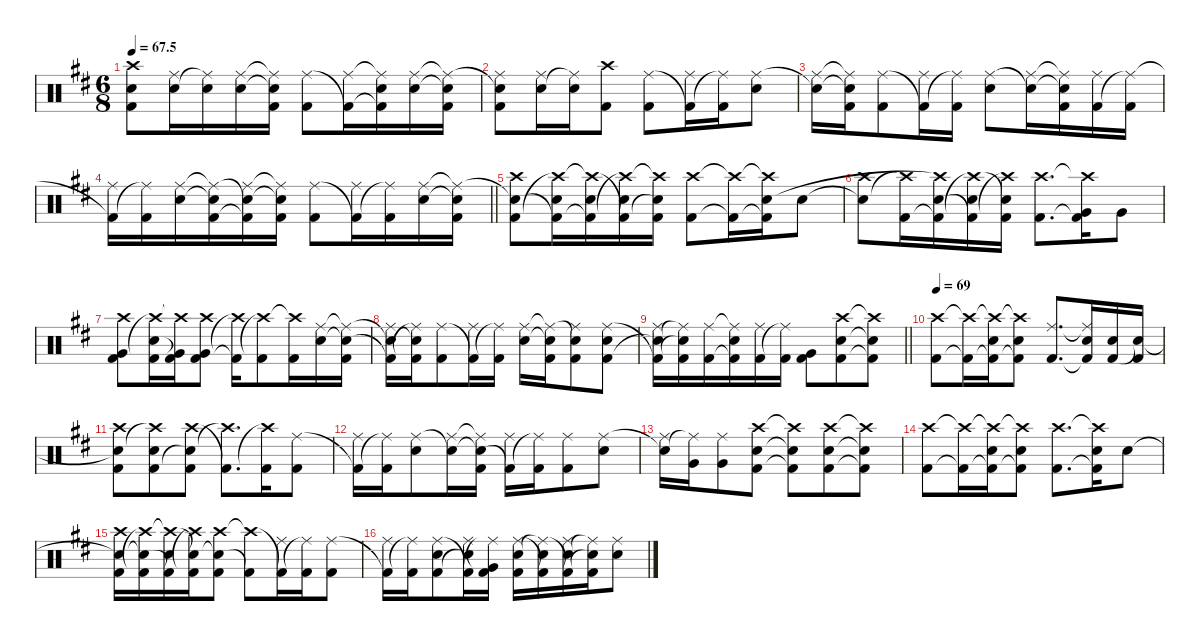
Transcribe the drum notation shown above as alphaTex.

\defaultSystemsLayout 4
\hideDynamics
\bracketExtendMode nobrackets
\singleTrackTrackNamePolicy hidden
\multiTrackTrackNamePolicy hidden
\firstSystemTrackNameMode fullname
\firstSystemTrackNameOrientation horizontal
\otherSystemsTrackNameOrientation horizontal
\track ("Drumkit" "drm.") {defaultSystemsLayout 4 instrument percussion}
\staff {score}
\articulation defaults
\ts (6 8)
\tempo
67.5
\accidentals auto
\clef neutral
\ottava regular
\simile none
\ks bminor
("Kick (hit) 2"{acc forcenatural} "Snare (hit) 2"{t acc forcenatural} "Crash high (hit)"{acc #}).8{dy ff beam Down} ("Snare (hit) 2"{acc forcenatural} "Ride (middle)"{acc #}).16{beam Down} ("Ride (middle)"{t acc #} "Snare (hit) 2"{acc forcenatural}).16{beam Down} ("Snare (hit) 2"{acc forcenatural} "Ride (middle)"{acc #}).16{beam Down} ("Snare (hit) 2"{t acc forcenatural} "Ride (middle)"{t acc #} "Kick (hit) 2"{acc forcenatural}).16{beam Down} ("Ride (middle)"{acc #} "Kick (hit) 2"{acc forcenatural}).8{beam Down} ("Kick (hit) 2"{t acc forcenatural} "Ride (middle)"{acc #}).16{beam Down} ("Kick (hit) 2"{t acc forcenatural} "Ride (middle)"{t acc #} "Snare (hit) 2"{acc forcenatural}).16{beam Down} ("Ride (middle)"{acc #} "Snare (hit) 2"{acc forcenatural}).16{beam Down} ("Ride (middle)"{t acc #} "Snare (hit) 2"{t acc forcenatural} "Kick (hit) 2"{acc forcenatural}).16{beam Down} |
("Snare (hit) 2"{t acc forcenatural} "Kick (hit) 2"{acc forcenatural} "Ride (middle)"{acc #}).8{beam Down} ("Snare (hit) 2"{acc forcenatural} "Ride (middle)"{acc #}).16{beam Down} ("Ride (middle)"{t acc #} "Snare (hit) 2"{acc forcenatural}).16{beam Down} ("Kick (hit) 2"{acc forcenatural} "Crash high (hit)"{acc #}).8{beam Down} ("Ride (middle)"{acc #} "Kick (hit) 2"{acc forcenatural}).8{beam Down} ("Kick (hit) 2"{t acc forcenatural} "Ride (middle)"{acc #}).16{beam Down} ("Ride (middle)"{t acc #} "Kick (hit) 2"{acc forcenatural}).16{beam Down} ("Ride (middle)"{acc #} "Snare (hit) 2"{acc forcenatural}).8{beam Down} |
("Snare (hit) 2"{t acc forcenatural} "Ride (middle)"{acc #}).16{beam Down} ("Snare (hit) 2"{t acc forcenatural} "Ride (middle)"{t acc #} "Kick (hit) 2"{acc forcenatural}).16{beam Down} ("Ride (middle)"{acc #} "Kick (hit) 2"{acc forcenatural}).8{beam Down} ("Kick (hit) 2"{t acc forcenatural} "Ride (middle)"{acc #}).16{beam Down} ("Ride (middle)"{t acc #} "Kick (hit) 2"{acc forcenatural}).16{beam Down} ("Ride (middle)"{acc #} "Snare (hit) 2"{acc forcenatural}).8{beam Down} ("Snare (hit) 2"{t acc forcenatural} "Ride (middle)"{acc #}).16{beam Down} ("Snare (hit) 2"{t acc forcenatural} "Ride (middle)"{t acc #} "Kick (hit) 2"{acc forcenatural}).16{beam Down} ("Kick (hit) 2"{acc forcenatural} "Ride (middle)"{acc #}).16{beam Down} ("Ride (middle)"{t acc #} "Kick (hit) 2"{acc forcenatural}).16{beam Down} |
\barLineRight lightlight
("Kick (hit) 2"{t acc forcenatural} "Ride (middle)"{acc #}).16{beam Down} ("Ride (middle)"{t acc #} "Kick (hit) 2"{acc forcenatural}).16{beam Down} ("Ride (middle)"{acc #} "Snare (hit) 2"{acc forcenatural}).16{beam Down} ("Ride (middle)"{t acc #} "Snare (hit) 2"{t acc forcenatural} "Kick (hit) 2"{acc forcenatural}).16{beam Down} ("Snare (hit) 2"{t acc forcenatural} "Ride (middle)"{acc #} "Kick (hit) 2"{t acc forcenatural}).16{beam Down} ("Snare (hit) 2"{t acc forcenatural} "Ride (middle)"{t acc #} "Kick (hit) 2"{acc forcenatural}).16{beam Down} ("Ride (middle)"{acc #} "Kick (hit) 2"{acc forcenatural}).8{beam Down} ("Kick (hit) 2"{t acc forcenatural} "Ride (middle)"{acc #}).16{beam Down} ("Ride (middle)"{t acc #} "Kick (hit) 2"{acc forcenatural}).16{beam Down} ("Ride (middle)"{acc #} "Snare (hit) 2"{acc forcenatural}).16{beam Down} ("Ride (middle)"{t acc #} "Snare (hit) 2"{t acc forcenatural} "Kick (hit) 2"{acc forcenatural}).16{beam Down} |
("Snare (hit) 2"{t acc forcenatural} "Kick (hit) 2"{acc forcenatural} "Crash high (hit)"{acc #}).8{beam Down} ("Kick (hit) 2"{t acc forcenatural} "Crash high (hit)"{t acc #} "Snare (hit) 2"{acc forcenatural}).16{beam Down} ("Kick (hit) 2"{t acc forcenatural} "Crash high (hit)"{t acc #} "Snare (hit) 2"{acc forcenatural}).16{beam Down} ("Crash high (hit)"{t acc #} "Kick (hit) 2"{t acc forcenatural} "Snare (hit) 2"{acc forcenatural}).16{beam Down} ("Crash high (hit)"{t acc #} "Snare (hit) 2"{t acc forcenatural} "Kick (hit) 2"{acc forcenatural}).16{beam Down} ("Kick (hit) 2"{acc forcenatural} "Crash high (hit)"{acc #}).8{beam Down} ("Kick (hit) 2"{t acc forcenatural} "Crash high (hit)"{t acc #}).16{beam Down} ("Kick (hit) 2"{t acc forcenatural} "Crash high (hit)"{t acc #} "Snare (hit) 2"{acc forcenatural}).16{beam Down} "Snare (hit) 2"{acc forcenatural}.8{beam Down} |
("Snare (hit) 2"{t acc forcenatural} "Crash high (hit)"{acc #}).8{beam Down} ("Crash high (hit)"{t acc #} "Kick (hit) 2"{acc forcenatural}).16{beam Down} ("Snare (hit) 2"{acc forcenatural} "Kick (hit) 2"{t acc forcenatural} "Crash high (hit)"{t acc #}).16{beam Down} ("Kick (hit) 2"{t acc forcenatural} "Crash high (hit)"{t acc #} "Snare (hit) 2"{acc forcenatural}).16{beam Down} ("Crash high (hit)"{t acc #} "Snare (hit) 2"{t acc forcenatural} "Kick (hit) 2"{acc forcenatural}).16{beam Down} ("Kick (hit) 2"{acc forcenatural} "Crash high (hit)"{acc #}).8{d beam Down} ("Kick (hit) 2"{t acc forcenatural} "Crash high (hit)"{t acc #} "Very Low Tom (hit)"{acc forcenatural}).16{beam Down} "Very Low Tom (hit)"{acc forcenatural}.8{beam Down} |
("Kick (hit) 2"{acc forcenatural} "Very Low Tom (hit)"{acc forcenatural} "Crash high (hit)"{acc #}).8{beam Down} ("Crash high (hit)"{t acc #} "Snare (hit) 2"{acc forcenatural} "Kick (hit) 2"{acc forcenatural}).16{beam Down} ("Crash high (hit)"{t acc #} "Kick (hit) 2"{t acc forcenatural} "Very Low Tom (hit)"{acc forcenatural}).16{beam Down} ("Kick (hit) 2"{acc forcenatural} "Very Low Tom (hit)"{acc forcenatural} "Crash high (hit)"{acc #}).8{beam Down} ("Kick (hit) 2"{t acc forcenatural} "Crash high (hit)"{t acc #}).16{beam Down} ("Crash high (hit)"{t acc #} "Kick (hit) 2"{acc forcenatural}).8{beam Down} ("Crash high (hit)"{t acc #} "Kick (hit) 2"{acc forcenatural}).16{beam Down} ("Ride (middle)"{acc #} "Snare (hit) 2"{acc forcenatural}).16{beam Down} ("Ride (middle)"{t acc #} "Snare (hit) 2"{t acc forcenatural} "Kick (hit) 2"{acc forcenatural}).16{beam Down} |
("Snare (hit) 2"{t acc forcenatural} "Kick (hit) 2"{t acc forcenatural} "Ride (middle)"{acc #}).16{beam Down} ("Snare (hit) 2"{t acc forcenatural} "Ride (middle)"{t acc #} "Kick (hit) 2"{acc forcenatural}).16{beam Down} ("Ride (middle)"{acc #} "Kick (hit) 2"{acc forcenatural}).8{beam Down} ("Kick (hit) 2"{t acc forcenatural} "Ride (middle)"{acc #}).16{beam Down} ("Ride (middle)"{t acc #} "Kick (hit) 2"{acc forcenatural}).16{beam Down} ("Ride (middle)"{acc #} "Snare (hit) 2"{acc forcenatural}).16{beam Down} ("Ride (middle)"{t acc #} "Snare (hit) 2"{t acc forcenatural} "Kick (hit) 2"{acc forcenatural}).16{beam Down} ("Snare (hit) 2"{t acc forcenatural} "Kick (hit) 2"{acc forcenatural} "Ride (middle)"{acc #}).8{beam Down} ("Ride (middle)"{acc #} "Kick (hit) 2"{acc forcenatural} "Snare (hit) 2"{acc forcenatural}).8{beam Down} |
\barLineRight lightlight
("Kick (hit) 2"{t acc forcenatural} "Snare (hit) 2"{t acc forcenatural} "Ride (middle)"{acc #}).16{beam Down} ("Snare (hit) 2"{t acc forcenatural} "Ride (middle)"{t acc #} "Kick (hit) 2"{acc forcenatural}).16{beam Down} ("Kick (hit) 2"{acc forcenatural} "Ride (middle)"{acc #}).16{beam Down} ("Kick (hit) 2"{t acc forcenatural} "Ride (middle)"{t acc #} "Snare (hit) 2"{acc forcenatural}).16{beam Down} ("Kick (hit) 2"{acc forcenatural} "Ride (middle)"{acc #}).16{beam Down} ("Ride (middle)"{t acc #} "Kick (hit) 2"{acc forcenatural}).16{beam Down} ("Kick (hit) 2"{acc forcenatural} "Very Low Tom (hit)"{acc forcenatural}).8{beam Down} ("Snare (hit) 2"{acc forcenatural} "Kick (hit) 2"{acc forcenatural} "Crash high (hit)"{acc #}).8{beam Down} ("Snare (hit) 2"{t acc forcenatural} "Kick (hit) 2"{t acc forcenatural} "Crash high (hit)"{t acc #}).8{beam Down} |
\tempo 69
("Kick (hit) 2"{acc forcenatural} "Crash high (hit)"{acc #}).8{beam Down} ("Kick (hit) 2"{t acc forcenatural} "Crash high (hit)"{t acc #}).16{beam Down} ("Kick (hit) 2"{t acc forcenatural} "Crash high (hit)"{t acc #} "Snare (hit) 2"{acc forcenatural}).16{beam Down} ("Kick (hit) 2"{t acc forcenatural} "Crash high (hit)"{t acc #} "Snare (hit) 2"{acc forcenatural}).8{beam Down} ("Kick (hit) 2"{acc forcenatural} "Ride (middle)"{acc #}).8{d beam Up} ("Kick (hit) 2"{t acc forcenatural} "Ride (middle)"{t acc #} "Snare (hit) 2"{acc forcenatural}).16{beam Up} ("Kick (hit) 2"{acc forcenatural} "Snare (hit) 2"{acc forcenatural}).16{beam Up} ("Snare (hit) 2"{t acc forcenatural} "Kick (hit) 2"{acc forcenatural}).16{beam Up} |
("Snare (hit) 2"{t acc forcenatural} "Kick (hit) 2"{acc forcenatural} "Crash high (hit)"{acc #}).8{beam Down} ("Crash high (hit)"{t acc #} "Kick (hit) 2"{acc forcenatural} "Snare (hit) 2"{acc forcenatural}).8{beam Down} ("Crash high (hit)"{acc #} "Snare (hit) 2"{t acc forcenatural} "Kick (hit) 2"{acc forcenatural}).8{beam Down} ("Kick (hit) 2"{t acc forcenatural} "Crash high (hit)"{t acc #}).8{d beam Down} ("Crash high (hit)"{t acc #} "Kick (hit) 2"{acc forcenatural}).16{beam Down} ("Ride (middle)"{acc #} "Kick (hit) 2"{acc forcenatural}).8{beam Down} |
("Kick (hit) 2"{t acc forcenatural} "Ride (middle)"{acc #}).16{beam Down} ("Ride (middle)"{t acc #} "Kick (hit) 2"{acc forcenatural}).16{beam Down} ("Ride (middle)"{acc #} "Snare (hit) 2"{acc forcenatural}).8{beam Down} ("Snare (hit) 2"{t acc forcenatural} "Ride (middle)"{acc #}).16{beam Down} ("Snare (hit) 2"{t acc forcenatural} "Ride (middle)"{t acc #} "Kick (hit) 2"{acc forcenatural}).16{beam Down} ("Kick (hit) 2"{t acc forcenatural} "Ride (middle)"{acc #}).16{beam Down} ("Ride (middle)"{t acc #} "Kick (hit) 2"{acc forcenatural}).16{beam Down} ("Kick (hit) 2"{acc forcenatural} "Ride (middle)"{acc #}).8{beam Down} ("Ride (middle)"{acc #} "Snare (hit) 2"{acc forcenatural}).8{beam Down} |
("Snare (hit) 2"{t acc forcenatural} "Ride (middle)"{acc #}).16{beam Down} ("Ride (middle)"{t acc #} "Very Low Tom (hit)"{acc forcenatural}).16{beam Down} ("Very Low Tom (hit)"{acc forcenatural} "Ride (middle)"{acc #}).8{beam Down} ("Kick (hit) 2"{acc forcenatural} "Snare (hit) 2"{acc forcenatural} "Crash high (hit)"{acc #}).8{beam Down} ("Kick (hit) 2"{t acc forcenatural} "Snare (hit) 2"{t acc forcenatural} "Crash high (hit)"{t acc #}).8{beam Down} ("Snare (hit) 2"{acc forcenatural} "Kick (hit) 2"{acc forcenatural} "Crash high (hit)"{acc #}).8{beam Down} ("Snare (hit) 2"{t acc forcenatural} "Kick (hit) 2"{t acc forcenatural} "Crash high (hit)"{t acc #}).8{beam Down} |
("Kick (hit) 2"{acc forcenatural} "Crash high (hit)"{acc #}).8{beam Down} ("Kick (hit) 2"{t acc forcenatural} "Crash high (hit)"{t acc #}).16{beam Down} ("Kick (hit) 2"{t acc forcenatural} "Crash high (hit)"{t acc #} "Snare (hit) 2"{acc forcenatural}).16{beam Down} ("Kick (hit) 2"{t acc forcenatural} "Crash high (hit)"{t acc #} "Snare (hit) 2"{acc forcenatural}).8{beam Down} ("Kick (hit) 2"{acc forcenatural} "Crash high (hit)"{acc #}).8{d beam Down} ("Kick (hit) 2"{t acc forcenatural} "Crash high (hit)"{t acc #} "Snare (hit) 2"{acc forcenatural}).16{beam Down} "Snare (hit) 2"{acc forcenatural}.8{beam Down} |
("Snare (hit) 2"{t acc forcenatural} "Kick (hit) 2"{acc forcenatural} "Crash high (hit)"{acc #}).16{beam Down} ("Snare (hit) 2"{t acc forcenatural} "Crash high (hit)"{t acc #} "Kick (hit) 2"{acc forcenatural}).16{beam Down} ("Kick (hit) 2"{t acc forcenatural} "Crash high (hit)"{t acc #} "Snare (hit) 2"{acc forcenatural}).16{beam Down} ("Crash high (hit)"{t acc #} "Snare (hit) 2"{t acc forcenatural} "Kick (hit) 2"{acc forcenatural}).16{beam Down} ("Crash high (hit)"{acc #} "Snare (hit) 2"{t acc forcenatural} "Kick (hit) 2"{acc forcenatural}).8{beam Down} ("Crash high (hit)"{t acc #} "Kick (hit) 2"{t acc forcenatural}).8{beam Down} ("Kick (hit) 2"{t acc forcenatural} "Ride (middle)"{acc #}).16{beam Down} ("Ride (middle)"{t acc #} "Kick (hit) 2"{acc forcenatural}).16{beam Down} ("Ride (middle)"{acc #} "Kick (hit) 2"{acc forcenatural}).8{beam Down} |
("Kick (hit) 2"{t acc forcenatural} "Ride (middle)"{acc #}).16{beam Down} ("Ride (middle)"{t acc #} "Kick (hit) 2"{acc forcenatural}).16{beam Down} ("Ride (middle)"{acc #} "Kick (hit) 2"{acc forcenatural} "Snare (hit) 2"{acc forcenatural}).8{beam Down} ("Kick (hit) 2"{t acc forcenatural} "Snare (hit) 2"{t acc forcenatural} "Ride (middle)"{acc #}).16{beam Down} ("Ride (middle)"{t acc #} "Kick (hit) 2"{acc forcenatural} "Very Low Tom (hit)"{acc forcenatural}).16{beam Down} ("Snare (hit) 2"{acc forcenatural} "Ride (middle)"{acc #} "Kick (hit) 2"{acc forcenatural}).16{beam Down} ("Ride (middle)"{t acc #} "Kick (hit) 2"{t acc forcenatural} "Snare (hit) 2"{acc forcenatural}).16{beam Down} ("Kick (hit) 2"{t acc forcenatural} "Snare (hit) 2"{acc forcenatural} "Ride (middle)"{acc #}).16{beam Down} ("Snare (hit) 2"{t acc forcenatural} "Ride (middle)"{t acc #} "Kick (hit) 2"{acc forcenatural}).16{beam Down} ("Snare (hit) 2"{acc forcenatural} "Ride (middle)"{acc #}).8{beam Down}
